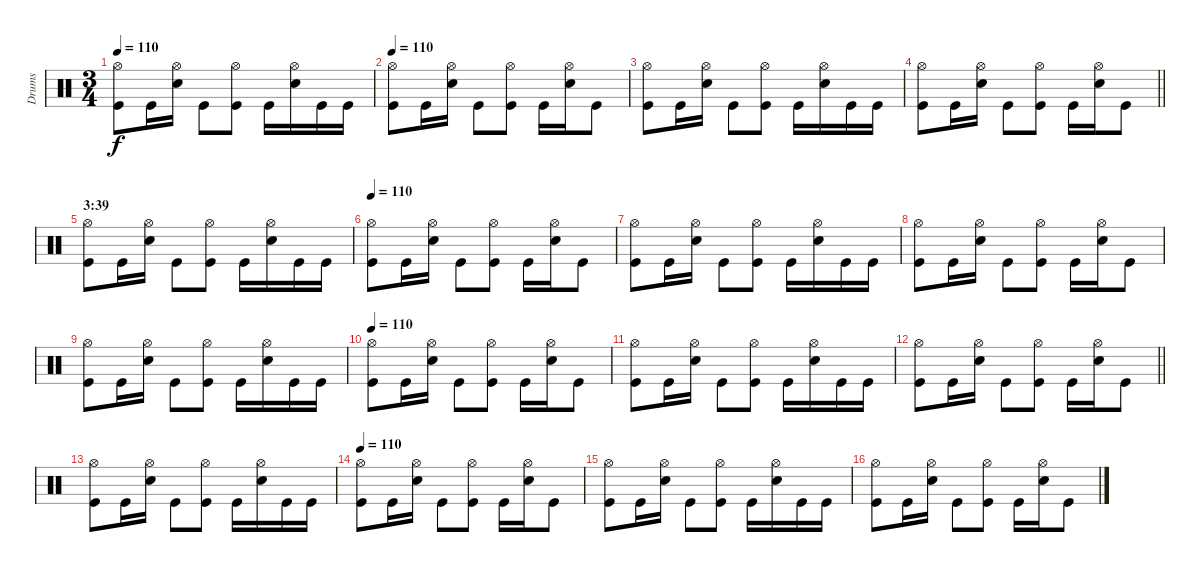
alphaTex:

\track ("Drums" "Drums") {instrument percussion}
\staff {score}
\articulation defaults
\ts (3 4)
\tempo 110
\clef neutral
\ks c
("Hi-Hat (open)" "Kick (hit)").8{dy f} "Kick (hit)".16 ("Electric Snare (hit)" "Hi-Hat (open)").16 "Kick (hit)".8 ("Hi-Hat (open)" "Kick (hit)").8 "Kick (hit)".16 ("Electric Snare (hit)" "Hi-Hat (open)").16 "Kick (hit)".16 "Kick (hit)".16 |
\tempo 110
("Hi-Hat (open)" "Kick (hit)").8 "Kick (hit)".16 ("Electric Snare (hit)" "Hi-Hat (open)").16 "Kick (hit)".8 ("Hi-Hat (open)" "Kick (hit)").8 "Kick (hit)".16 ("Electric Snare (hit)" "Hi-Hat (open)").16 "Kick (hit)".8 |
("Hi-Hat (open)" "Kick (hit)").8 "Kick (hit)".16 ("Electric Snare (hit)" "Hi-Hat (open)").16 "Kick (hit)".8 ("Hi-Hat (open)" "Kick (hit)").8 "Kick (hit)".16 ("Electric Snare (hit)" "Hi-Hat (open)").16 "Kick (hit)".16 "Kick (hit)".16 |
\barLineRight lightlight
("Hi-Hat (open)" "Kick (hit)").8 "Kick (hit)".16 ("Electric Snare (hit)" "Hi-Hat (open)").16 "Kick (hit)".8 ("Hi-Hat (open)" "Kick (hit)").8 "Kick (hit)".16 ("Electric Snare (hit)" "Hi-Hat (open)").16 "Kick (hit)".8 |
\section ("" "3:39")
("Hi-Hat (open)" "Kick (hit)").8 "Kick (hit)".16 ("Electric Snare (hit)" "Hi-Hat (open)").16 "Kick (hit)".8 ("Hi-Hat (open)" "Kick (hit)").8 "Kick (hit)".16 ("Electric Snare (hit)" "Hi-Hat (open)").16 "Kick (hit)".16 "Kick (hit)".16 |
\tempo 110
("Hi-Hat (open)" "Kick (hit)").8 "Kick (hit)".16 ("Electric Snare (hit)" "Hi-Hat (open)").16 "Kick (hit)".8 ("Hi-Hat (open)" "Kick (hit)").8 "Kick (hit)".16 ("Electric Snare (hit)" "Hi-Hat (open)").16 "Kick (hit)".8 |
("Hi-Hat (open)" "Kick (hit)").8 "Kick (hit)".16 ("Electric Snare (hit)" "Hi-Hat (open)").16 "Kick (hit)".8 ("Hi-Hat (open)" "Kick (hit)").8 "Kick (hit)".16 ("Electric Snare (hit)" "Hi-Hat (open)").16 "Kick (hit)".16 "Kick (hit)".16 |
("Hi-Hat (open)" "Kick (hit)").8 "Kick (hit)".16 ("Electric Snare (hit)" "Hi-Hat (open)").16 "Kick (hit)".8 ("Hi-Hat (open)" "Kick (hit)").8 "Kick (hit)".16 ("Electric Snare (hit)" "Hi-Hat (open)").16 "Kick (hit)".8 |
("Hi-Hat (open)" "Kick (hit)").8 "Kick (hit)".16 ("Electric Snare (hit)" "Hi-Hat (open)").16 "Kick (hit)".8 ("Hi-Hat (open)" "Kick (hit)").8 "Kick (hit)".16 ("Electric Snare (hit)" "Hi-Hat (open)").16 "Kick (hit)".16 "Kick (hit)".16 |
\tempo 110
("Hi-Hat (open)" "Kick (hit)").8 "Kick (hit)".16 ("Electric Snare (hit)" "Hi-Hat (open)").16 "Kick (hit)".8 ("Hi-Hat (open)" "Kick (hit)").8 "Kick (hit)".16 ("Electric Snare (hit)" "Hi-Hat (open)").16 "Kick (hit)".8 |
("Hi-Hat (open)" "Kick (hit)").8 "Kick (hit)".16 ("Electric Snare (hit)" "Hi-Hat (open)").16 "Kick (hit)".8 ("Hi-Hat (open)" "Kick (hit)").8 "Kick (hit)".16 ("Electric Snare (hit)" "Hi-Hat (open)").16 "Kick (hit)".16 "Kick (hit)".16 |
\barLineRight lightlight
("Hi-Hat (open)" "Kick (hit)").8 "Kick (hit)".16 ("Electric Snare (hit)" "Hi-Hat (open)").16 "Kick (hit)".8 ("Hi-Hat (open)" "Kick (hit)").8 "Kick (hit)".16 ("Electric Snare (hit)" "Hi-Hat (open)").16 "Kick (hit)".8 |
("Hi-Hat (open)" "Kick (hit)").8 "Kick (hit)".16 ("Electric Snare (hit)" "Hi-Hat (open)").16 "Kick (hit)".8 ("Hi-Hat (open)" "Kick (hit)").8 "Kick (hit)".16 ("Electric Snare (hit)" "Hi-Hat (open)").16 "Kick (hit)".16 "Kick (hit)".16 |
\tempo 110
("Hi-Hat (open)" "Kick (hit)").8 "Kick (hit)".16 ("Electric Snare (hit)" "Hi-Hat (open)").16 "Kick (hit)".8 ("Hi-Hat (open)" "Kick (hit)").8 "Kick (hit)".16 ("Electric Snare (hit)" "Hi-Hat (open)").16 "Kick (hit)".8 |
("Hi-Hat (open)" "Kick (hit)").8 "Kick (hit)".16 ("Electric Snare (hit)" "Hi-Hat (open)").16 "Kick (hit)".8 ("Hi-Hat (open)" "Kick (hit)").8 "Kick (hit)".16 ("Electric Snare (hit)" "Hi-Hat (open)").16 "Kick (hit)".16 "Kick (hit)".16 |
("Hi-Hat (open)" "Kick (hit)").8 "Kick (hit)".16 ("Electric Snare (hit)" "Hi-Hat (open)").16 "Kick (hit)".8 ("Hi-Hat (open)" "Kick (hit)").8 "Kick (hit)".16 ("Electric Snare (hit)" "Hi-Hat (open)").16 "Kick (hit)".8
